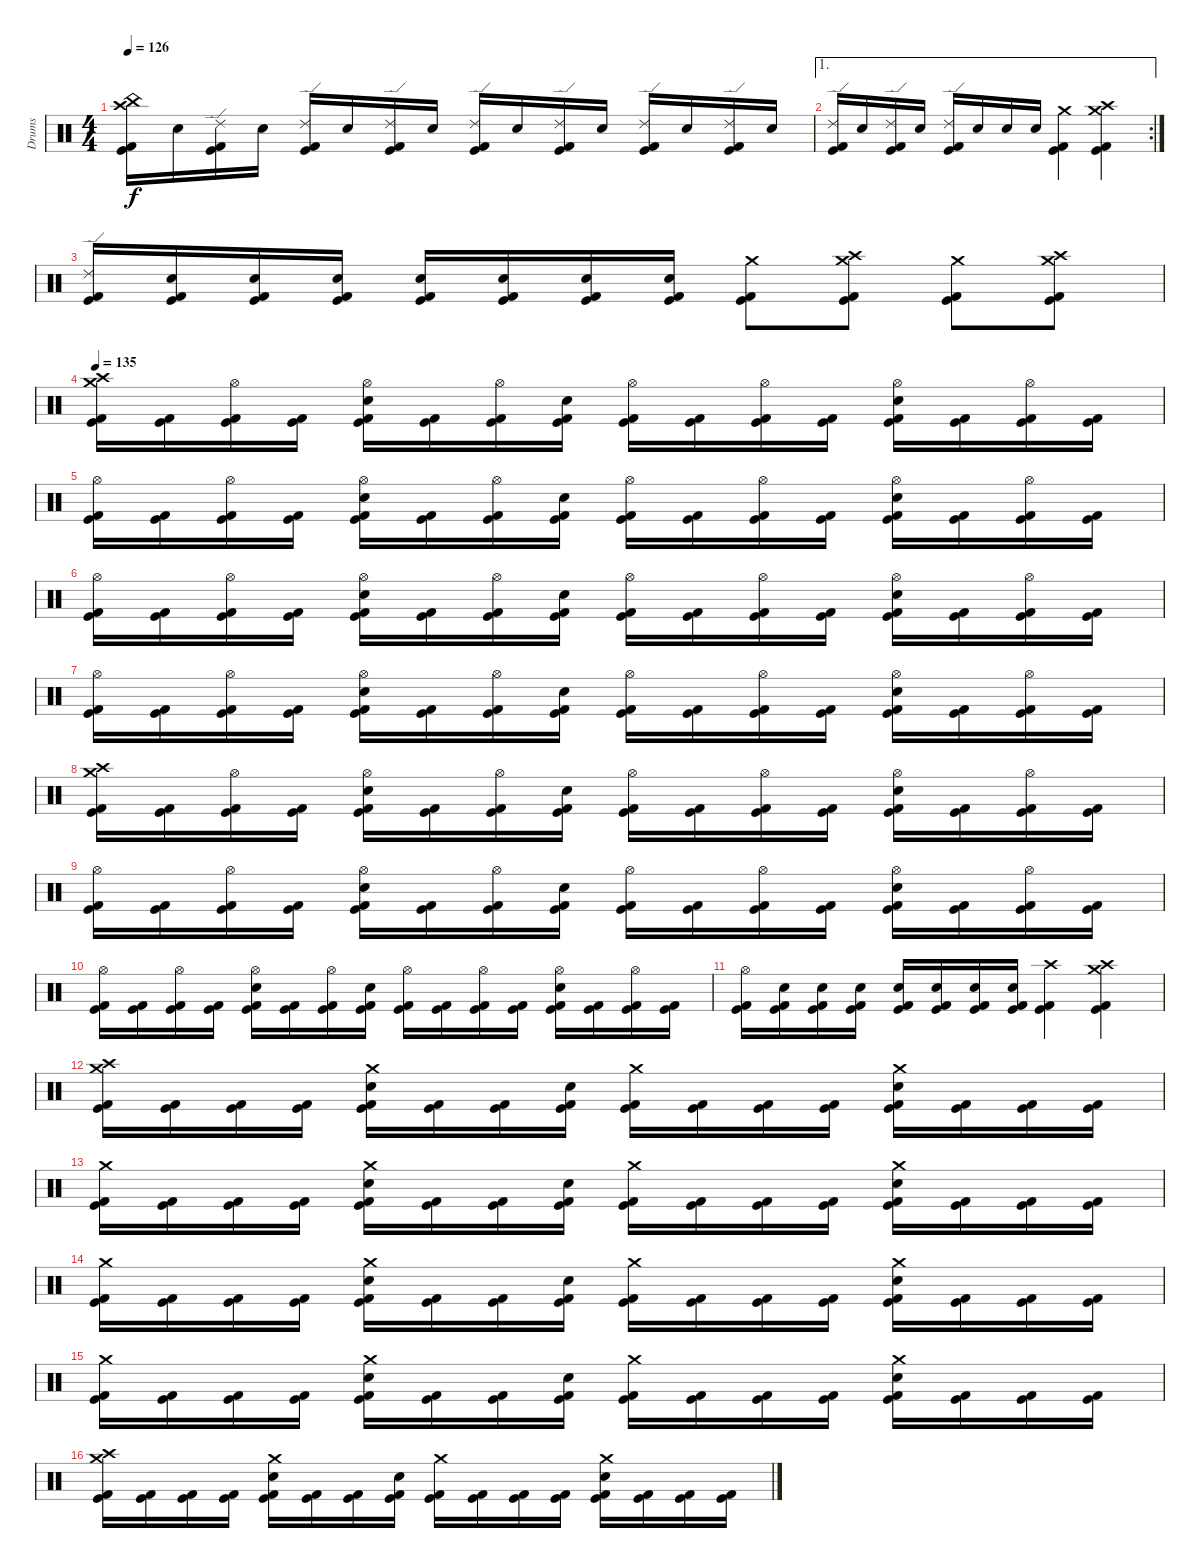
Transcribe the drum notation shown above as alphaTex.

\track ("Drums" "Drums") {instrument percussion}
\staff {score}
\articulation defaults
\ts (4 4)
\tempo 126
\clef neutral
\ks c
("China (hit)" "Crash high (hit)" "Kick (hit)" "Kick (hit) 2").16{dy f} "Electric Snare (hit)".16 ("Ride (edge) 2" "Kick (hit)" "Kick (hit) 2").16 "Electric Snare (hit)".16 ("Ride (edge) 2" "Kick (hit)" "Kick (hit) 2").16 "Electric Snare (hit)".16 ("Ride (edge) 2" "Kick (hit)" "Kick (hit) 2").16 "Electric Snare (hit)".16 ("Ride (edge) 2" "Kick (hit)" "Kick (hit) 2").16 "Electric Snare (hit)".16 ("Ride (edge) 2" "Kick (hit)" "Kick (hit) 2").16 "Electric Snare (hit)".16 ("Ride (edge) 2" "Kick (hit)" "Kick (hit) 2").16 "Electric Snare (hit)".16 ("Ride (edge) 2" "Kick (hit)" "Kick (hit) 2").16 "Electric Snare (hit)".16 |
\ae 1
\rc 2
("Ride (edge) 2" "Kick (hit)" "Kick (hit) 2").16 "Electric Snare (hit)".16 ("Ride (edge) 2" "Kick (hit)" "Kick (hit) 2").16 "Electric Snare (hit)".16 ("Ride (edge) 2" "Kick (hit)" "Kick (hit) 2").16 "Electric Snare (hit)".16 "Electric Snare (hit)".16 "Electric Snare (hit)".16 ("Crash medium (hit)" "Kick (hit)" "Kick (hit) 2").4 ("Crash medium (hit)" "Crash high (hit)" "Kick (hit)" "Kick (hit) 2").4 |
("Ride (edge) 2" "Kick (hit)" "Kick (hit) 2").16 ("Electric Snare (hit)" "Kick (hit)" "Kick (hit) 2").16 ("Electric Snare (hit)" "Kick (hit)" "Kick (hit) 2").16 ("Electric Snare (hit)" "Kick (hit)" "Kick (hit) 2").16 ("Electric Snare (hit)" "Kick (hit)" "Kick (hit) 2").16 ("Electric Snare (hit)" "Kick (hit)" "Kick (hit) 2").16 ("Electric Snare (hit)" "Kick (hit)" "Kick (hit) 2").16 ("Electric Snare (hit)" "Kick (hit)" "Kick (hit) 2").16 ("Crash medium (hit)" "Kick (hit)" "Kick (hit) 2").8 ("Crash medium (hit)" "Crash high (hit)" "Kick (hit)" "Kick (hit) 2").8 ("Crash medium (hit)" "Kick (hit)" "Kick (hit) 2").8 ("Crash medium (hit)" "Crash high (hit)" "Kick (hit)" "Kick (hit) 2").8 |
\tempo 135
("Crash medium (hit)" "Crash high (hit)" "Kick (hit)" "Kick (hit) 2").16 ("Kick (hit)" "Kick (hit) 2").16 ("Hi-Hat (open)" "Kick (hit)" "Kick (hit) 2").16 ("Kick (hit)" "Kick (hit) 2").16 ("Hi-Hat (open)" "Electric Snare (hit)" "Kick (hit)" "Kick (hit) 2").16 ("Kick (hit)" "Kick (hit) 2").16 ("Hi-Hat (open)" "Kick (hit)" "Kick (hit) 2").16 ("Electric Snare (hit)" "Kick (hit)" "Kick (hit) 2").16 ("Hi-Hat (open)" "Kick (hit)" "Kick (hit) 2").16 ("Kick (hit)" "Kick (hit) 2").16 ("Hi-Hat (open)" "Kick (hit)" "Kick (hit) 2").16 ("Kick (hit)" "Kick (hit) 2").16 ("Hi-Hat (open)" "Electric Snare (hit)" "Kick (hit)" "Kick (hit) 2").16 ("Kick (hit)" "Kick (hit) 2").16 ("Hi-Hat (open)" "Kick (hit)" "Kick (hit) 2").16 ("Kick (hit)" "Kick (hit) 2").16 |
("Hi-Hat (open)" "Kick (hit)" "Kick (hit) 2").16 ("Kick (hit)" "Kick (hit) 2").16 ("Hi-Hat (open)" "Kick (hit)" "Kick (hit) 2").16 ("Kick (hit)" "Kick (hit) 2").16 ("Hi-Hat (open)" "Electric Snare (hit)" "Kick (hit)" "Kick (hit) 2").16 ("Kick (hit)" "Kick (hit) 2").16 ("Hi-Hat (open)" "Kick (hit)" "Kick (hit) 2").16 ("Electric Snare (hit)" "Kick (hit)" "Kick (hit) 2").16 ("Hi-Hat (open)" "Kick (hit)" "Kick (hit) 2").16 ("Kick (hit)" "Kick (hit) 2").16 ("Hi-Hat (open)" "Kick (hit)" "Kick (hit) 2").16 ("Kick (hit)" "Kick (hit) 2").16 ("Hi-Hat (open)" "Electric Snare (hit)" "Kick (hit)" "Kick (hit) 2").16 ("Kick (hit)" "Kick (hit) 2").16 ("Hi-Hat (open)" "Kick (hit)" "Kick (hit) 2").16 ("Kick (hit)" "Kick (hit) 2").16 |
("Hi-Hat (open)" "Kick (hit)" "Kick (hit) 2").16 ("Kick (hit)" "Kick (hit) 2").16 ("Hi-Hat (open)" "Kick (hit)" "Kick (hit) 2").16 ("Kick (hit)" "Kick (hit) 2").16 ("Hi-Hat (open)" "Electric Snare (hit)" "Kick (hit)" "Kick (hit) 2").16 ("Kick (hit)" "Kick (hit) 2").16 ("Hi-Hat (open)" "Kick (hit)" "Kick (hit) 2").16 ("Electric Snare (hit)" "Kick (hit)" "Kick (hit) 2").16 ("Hi-Hat (open)" "Kick (hit)" "Kick (hit) 2").16 ("Kick (hit)" "Kick (hit) 2").16 ("Hi-Hat (open)" "Kick (hit)" "Kick (hit) 2").16 ("Kick (hit)" "Kick (hit) 2").16 ("Hi-Hat (open)" "Electric Snare (hit)" "Kick (hit)" "Kick (hit) 2").16 ("Kick (hit)" "Kick (hit) 2").16 ("Hi-Hat (open)" "Kick (hit)" "Kick (hit) 2").16 ("Kick (hit)" "Kick (hit) 2").16 |
("Hi-Hat (open)" "Kick (hit)" "Kick (hit) 2").16 ("Kick (hit)" "Kick (hit) 2").16 ("Hi-Hat (open)" "Kick (hit)" "Kick (hit) 2").16 ("Kick (hit)" "Kick (hit) 2").16 ("Hi-Hat (open)" "Electric Snare (hit)" "Kick (hit)" "Kick (hit) 2").16 ("Kick (hit)" "Kick (hit) 2").16 ("Hi-Hat (open)" "Kick (hit)" "Kick (hit) 2").16 ("Electric Snare (hit)" "Kick (hit)" "Kick (hit) 2").16 ("Hi-Hat (open)" "Kick (hit)" "Kick (hit) 2").16 ("Kick (hit)" "Kick (hit) 2").16 ("Hi-Hat (open)" "Kick (hit)" "Kick (hit) 2").16 ("Kick (hit)" "Kick (hit) 2").16 ("Hi-Hat (open)" "Electric Snare (hit)" "Kick (hit)" "Kick (hit) 2").16 ("Kick (hit)" "Kick (hit) 2").16 ("Hi-Hat (open)" "Kick (hit)" "Kick (hit) 2").16 ("Kick (hit)" "Kick (hit) 2").16 |
("Crash medium (hit)" "Crash high (hit)" "Kick (hit)" "Kick (hit) 2").16 ("Kick (hit)" "Kick (hit) 2").16 ("Hi-Hat (open)" "Kick (hit)" "Kick (hit) 2").16 ("Kick (hit)" "Kick (hit) 2").16 ("Hi-Hat (open)" "Electric Snare (hit)" "Kick (hit)" "Kick (hit) 2").16 ("Kick (hit)" "Kick (hit) 2").16 ("Hi-Hat (open)" "Kick (hit)" "Kick (hit) 2").16 ("Electric Snare (hit)" "Kick (hit)" "Kick (hit) 2").16 ("Hi-Hat (open)" "Kick (hit)" "Kick (hit) 2").16 ("Kick (hit)" "Kick (hit) 2").16 ("Hi-Hat (open)" "Kick (hit)" "Kick (hit) 2").16 ("Kick (hit)" "Kick (hit) 2").16 ("Hi-Hat (open)" "Electric Snare (hit)" "Kick (hit)" "Kick (hit) 2").16 ("Kick (hit)" "Kick (hit) 2").16 ("Hi-Hat (open)" "Kick (hit)" "Kick (hit) 2").16 ("Kick (hit)" "Kick (hit) 2").16 |
("Hi-Hat (open)" "Kick (hit)" "Kick (hit) 2").16 ("Kick (hit)" "Kick (hit) 2").16 ("Hi-Hat (open)" "Kick (hit)" "Kick (hit) 2").16 ("Kick (hit)" "Kick (hit) 2").16 ("Hi-Hat (open)" "Electric Snare (hit)" "Kick (hit)" "Kick (hit) 2").16 ("Kick (hit)" "Kick (hit) 2").16 ("Hi-Hat (open)" "Kick (hit)" "Kick (hit) 2").16 ("Electric Snare (hit)" "Kick (hit)" "Kick (hit) 2").16 ("Hi-Hat (open)" "Kick (hit)" "Kick (hit) 2").16 ("Kick (hit)" "Kick (hit) 2").16 ("Hi-Hat (open)" "Kick (hit)" "Kick (hit) 2").16 ("Kick (hit)" "Kick (hit) 2").16 ("Hi-Hat (open)" "Electric Snare (hit)" "Kick (hit)" "Kick (hit) 2").16 ("Kick (hit)" "Kick (hit) 2").16 ("Hi-Hat (open)" "Kick (hit)" "Kick (hit) 2").16 ("Kick (hit)" "Kick (hit) 2").16 |
("Hi-Hat (open)" "Kick (hit)" "Kick (hit) 2").16 ("Kick (hit)" "Kick (hit) 2").16 ("Hi-Hat (open)" "Kick (hit)" "Kick (hit) 2").16 ("Kick (hit)" "Kick (hit) 2").16 ("Hi-Hat (open)" "Electric Snare (hit)" "Kick (hit)" "Kick (hit) 2").16 ("Kick (hit)" "Kick (hit) 2").16 ("Hi-Hat (open)" "Kick (hit)" "Kick (hit) 2").16 ("Electric Snare (hit)" "Kick (hit)" "Kick (hit) 2").16 ("Hi-Hat (open)" "Kick (hit)" "Kick (hit) 2").16 ("Kick (hit)" "Kick (hit) 2").16 ("Hi-Hat (open)" "Kick (hit)" "Kick (hit) 2").16 ("Kick (hit)" "Kick (hit) 2").16 ("Hi-Hat (open)" "Electric Snare (hit)" "Kick (hit)" "Kick (hit) 2").16 ("Kick (hit)" "Kick (hit) 2").16 ("Hi-Hat (open)" "Kick (hit)" "Kick (hit) 2").16 ("Kick (hit)" "Kick (hit) 2").16 |
("Hi-Hat (open)" "Kick (hit)" "Kick (hit) 2").16 ("Electric Snare (hit)" "Kick (hit)" "Kick (hit) 2").16 ("Electric Snare (hit)" "Kick (hit)" "Kick (hit) 2").16 ("Electric Snare (hit)" "Kick (hit)" "Kick (hit) 2").16 ("Electric Snare (hit)" "Kick (hit)" "Kick (hit) 2").16 ("Electric Snare (hit)" "Kick (hit)" "Kick (hit) 2").16 ("Electric Snare (hit)" "Kick (hit)" "Kick (hit) 2").16 ("Electric Snare (hit)" "Kick (hit)" "Kick (hit) 2").16 ("Crash high (hit)" "Kick (hit)" "Kick (hit) 2").4 ("Crash high (hit)" "Crash medium (hit)" "Kick (hit)" "Kick (hit) 2").4 |
("Crash medium (hit)" "Crash high (hit)" "Kick (hit)" "Kick (hit) 2").16 ("Kick (hit)" "Kick (hit) 2").16 ("Kick (hit)" "Kick (hit) 2").16 ("Kick (hit)" "Kick (hit) 2").16 ("Crash medium (hit)" "Electric Snare (hit)" "Kick (hit)" "Kick (hit) 2").16 ("Kick (hit)" "Kick (hit) 2").16 ("Kick (hit)" "Kick (hit) 2").16 ("Electric Snare (hit)" "Kick (hit)" "Kick (hit) 2").16 ("Crash medium (hit)" "Kick (hit)" "Kick (hit) 2").16 ("Kick (hit)" "Kick (hit) 2").16 ("Kick (hit)" "Kick (hit) 2").16 ("Kick (hit)" "Kick (hit) 2").16 ("Crash medium (hit)" "Electric Snare (hit)" "Kick (hit)" "Kick (hit) 2").16 ("Kick (hit)" "Kick (hit) 2").16 ("Kick (hit)" "Kick (hit) 2").16 ("Kick (hit)" "Kick (hit) 2").16 |
("Crash medium (hit)" "Kick (hit)" "Kick (hit) 2").16 ("Kick (hit)" "Kick (hit) 2").16 ("Kick (hit)" "Kick (hit) 2").16 ("Kick (hit)" "Kick (hit) 2").16 ("Crash medium (hit)" "Electric Snare (hit)" "Kick (hit)" "Kick (hit) 2").16 ("Kick (hit)" "Kick (hit) 2").16 ("Kick (hit)" "Kick (hit) 2").16 ("Electric Snare (hit)" "Kick (hit)" "Kick (hit) 2").16 ("Crash medium (hit)" "Kick (hit)" "Kick (hit) 2").16 ("Kick (hit)" "Kick (hit) 2").16 ("Kick (hit)" "Kick (hit) 2").16 ("Kick (hit)" "Kick (hit) 2").16 ("Crash medium (hit)" "Electric Snare (hit)" "Kick (hit)" "Kick (hit) 2").16 ("Kick (hit)" "Kick (hit) 2").16 ("Kick (hit)" "Kick (hit) 2").16 ("Kick (hit)" "Kick (hit) 2").16 |
("Crash medium (hit)" "Kick (hit)" "Kick (hit) 2").16 ("Kick (hit)" "Kick (hit) 2").16 ("Kick (hit)" "Kick (hit) 2").16 ("Kick (hit)" "Kick (hit) 2").16 ("Crash medium (hit)" "Electric Snare (hit)" "Kick (hit)" "Kick (hit) 2").16 ("Kick (hit)" "Kick (hit) 2").16 ("Kick (hit)" "Kick (hit) 2").16 ("Electric Snare (hit)" "Kick (hit)" "Kick (hit) 2").16 ("Crash medium (hit)" "Kick (hit)" "Kick (hit) 2").16 ("Kick (hit)" "Kick (hit) 2").16 ("Kick (hit)" "Kick (hit) 2").16 ("Kick (hit)" "Kick (hit) 2").16 ("Crash medium (hit)" "Electric Snare (hit)" "Kick (hit)" "Kick (hit) 2").16 ("Kick (hit)" "Kick (hit) 2").16 ("Kick (hit)" "Kick (hit) 2").16 ("Kick (hit)" "Kick (hit) 2").16 |
("Crash medium (hit)" "Kick (hit)" "Kick (hit) 2").16 ("Kick (hit)" "Kick (hit) 2").16 ("Kick (hit)" "Kick (hit) 2").16 ("Kick (hit)" "Kick (hit) 2").16 ("Crash medium (hit)" "Electric Snare (hit)" "Kick (hit)" "Kick (hit) 2").16 ("Kick (hit)" "Kick (hit) 2").16 ("Kick (hit)" "Kick (hit) 2").16 ("Electric Snare (hit)" "Kick (hit)" "Kick (hit) 2").16 ("Crash medium (hit)" "Kick (hit)" "Kick (hit) 2").16 ("Kick (hit)" "Kick (hit) 2").16 ("Kick (hit)" "Kick (hit) 2").16 ("Kick (hit)" "Kick (hit) 2").16 ("Crash medium (hit)" "Electric Snare (hit)" "Kick (hit)" "Kick (hit) 2").16 ("Kick (hit)" "Kick (hit) 2").16 ("Kick (hit)" "Kick (hit) 2").16 ("Kick (hit)" "Kick (hit) 2").16 |
("Crash medium (hit)" "Crash high (hit)" "Kick (hit)" "Kick (hit) 2").16 ("Kick (hit)" "Kick (hit) 2").16 ("Kick (hit)" "Kick (hit) 2").16 ("Kick (hit)" "Kick (hit) 2").16 ("Crash medium (hit)" "Electric Snare (hit)" "Kick (hit)" "Kick (hit) 2").16 ("Kick (hit)" "Kick (hit) 2").16 ("Kick (hit)" "Kick (hit) 2").16 ("Electric Snare (hit)" "Kick (hit)" "Kick (hit) 2").16 ("Crash medium (hit)" "Kick (hit)" "Kick (hit) 2").16 ("Kick (hit)" "Kick (hit) 2").16 ("Kick (hit)" "Kick (hit) 2").16 ("Kick (hit)" "Kick (hit) 2").16 ("Crash medium (hit)" "Electric Snare (hit)" "Kick (hit)" "Kick (hit) 2").16 ("Kick (hit)" "Kick (hit) 2").16 ("Kick (hit)" "Kick (hit) 2").16 ("Kick (hit)" "Kick (hit) 2").16
